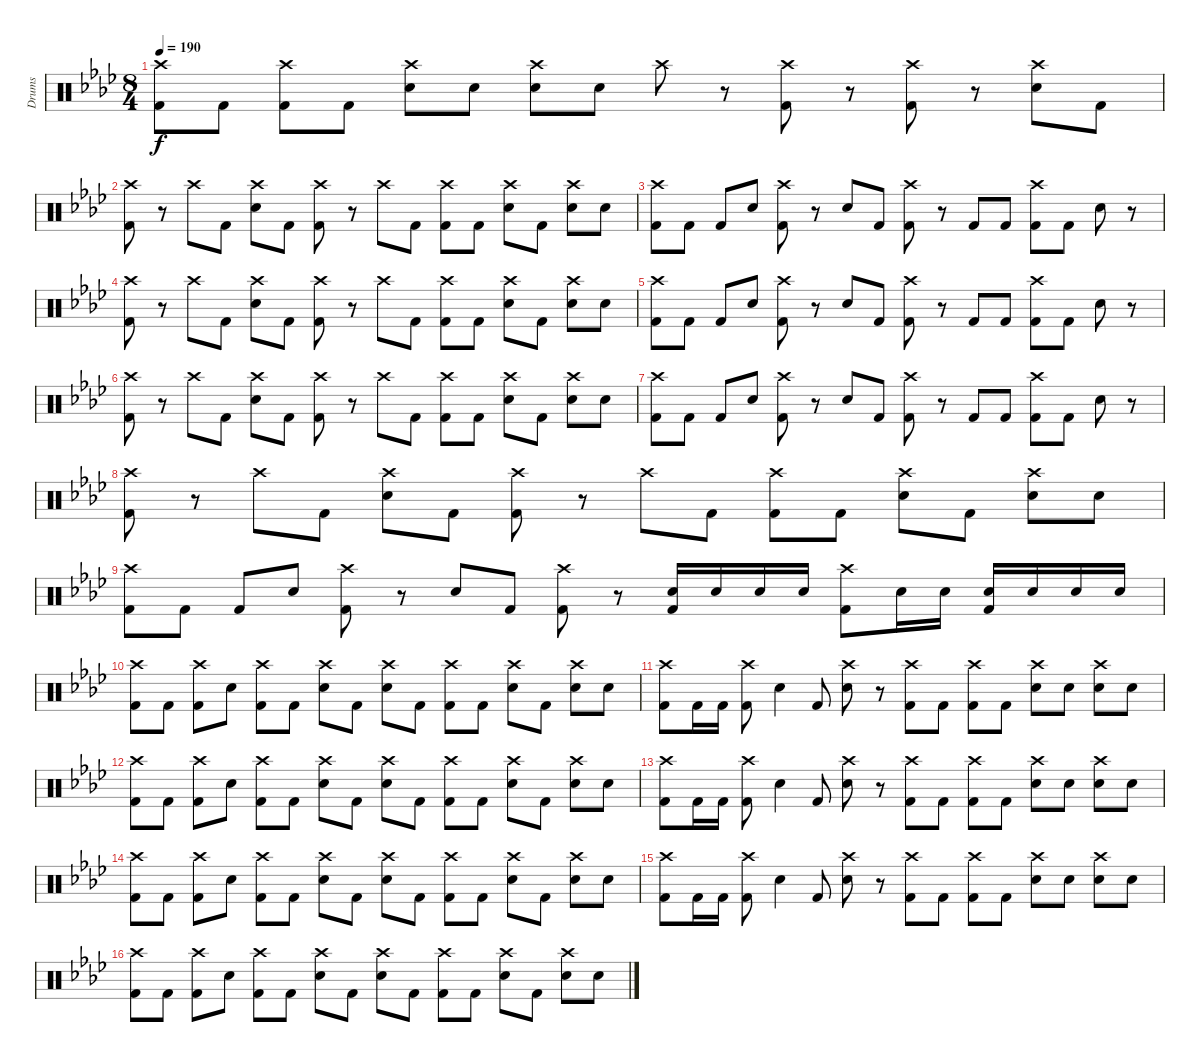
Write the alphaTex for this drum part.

\track ("Drums" "Drums") {instrument percussion}
\staff {score}
\articulation defaults
\ts (8 4)
\tempo 190
\clef neutral
\ks ab
("Crash high (hit)" "Kick (hit) 2").8{dy f} "Kick (hit) 2".8 ("Crash high (hit)" "Kick (hit) 2").8 "Kick (hit) 2".8 ("Crash high (hit)" "Snare (hit) 2").8 "Snare (hit) 2".8 ("Crash high (hit)" "Snare (hit) 2").8 "Snare (hit) 2".8 "Crash high (hit)".8 r.8 ("Crash high (hit)" "Kick (hit) 2").8 r.8 ("Crash high (hit)" "Kick (hit) 2").8 r.8 ("Crash high (hit)" "Snare (hit) 2").8 "Kick (hit) 2".8 |
("Crash high (hit)" "Kick (hit) 2").8 r.8 "Crash high (hit)".8 "Kick (hit) 2".8 ("Crash high (hit)" "Snare (hit) 2").8 "Kick (hit) 2".8 ("Crash high (hit)" "Kick (hit) 2").8 r.8 "Crash high (hit)".8 "Kick (hit) 2".8 ("Crash high (hit)" "Kick (hit) 2").8 "Kick (hit) 2".8 ("Crash high (hit)" "Snare (hit) 2").8 "Kick (hit) 2".8 ("Crash high (hit)" "Snare (hit) 2").8 "Snare (hit) 2".8 |
("Crash high (hit)" "Kick (hit) 2").8 "Kick (hit) 2".8 "Kick (hit) 2".8 "Snare (hit) 2".8 ("Crash high (hit)" "Kick (hit) 2").8 r.8 "Snare (hit) 2".8 "Kick (hit) 2".8 ("Crash high (hit)" "Kick (hit) 2").8 r.8 "Kick (hit) 2".8 "Kick (hit) 2".8 ("Crash high (hit)" "Kick (hit) 2").8 "Kick (hit) 2".8 "Snare (hit) 2".8 r.8 |
("Crash high (hit)" "Kick (hit) 2").8 r.8 "Crash high (hit)".8 "Kick (hit) 2".8 ("Crash high (hit)" "Snare (hit) 2").8 "Kick (hit) 2".8 ("Crash high (hit)" "Kick (hit) 2").8 r.8 "Crash high (hit)".8 "Kick (hit) 2".8 ("Crash high (hit)" "Kick (hit) 2").8 "Kick (hit) 2".8 ("Crash high (hit)" "Snare (hit) 2").8 "Kick (hit) 2".8 ("Crash high (hit)" "Snare (hit) 2").8 "Snare (hit) 2".8 |
("Crash high (hit)" "Kick (hit) 2").8 "Kick (hit) 2".8 "Kick (hit) 2".8 "Snare (hit) 2".8 ("Crash high (hit)" "Kick (hit) 2").8 r.8 "Snare (hit) 2".8 "Kick (hit) 2".8 ("Crash high (hit)" "Kick (hit) 2").8 r.8 "Kick (hit) 2".8 "Kick (hit) 2".8 ("Crash high (hit)" "Kick (hit) 2").8 "Kick (hit) 2".8 "Snare (hit) 2".8 r.8 |
("Crash high (hit)" "Kick (hit) 2").8 r.8 "Crash high (hit)".8 "Kick (hit) 2".8 ("Crash high (hit)" "Snare (hit) 2").8 "Kick (hit) 2".8 ("Crash high (hit)" "Kick (hit) 2").8 r.8 "Crash high (hit)".8 "Kick (hit) 2".8 ("Crash high (hit)" "Kick (hit) 2").8 "Kick (hit) 2".8 ("Crash high (hit)" "Snare (hit) 2").8 "Kick (hit) 2".8 ("Crash high (hit)" "Snare (hit) 2").8 "Snare (hit) 2".8 |
("Crash high (hit)" "Kick (hit) 2").8 "Kick (hit) 2".8 "Kick (hit) 2".8 "Snare (hit) 2".8 ("Crash high (hit)" "Kick (hit) 2").8 r.8 "Snare (hit) 2".8 "Kick (hit) 2".8 ("Crash high (hit)" "Kick (hit) 2").8 r.8 "Kick (hit) 2".8 "Kick (hit) 2".8 ("Crash high (hit)" "Kick (hit) 2").8 "Kick (hit) 2".8 "Snare (hit) 2".8 r.8 |
("Crash high (hit)" "Kick (hit) 2").8 r.8 "Crash high (hit)".8 "Kick (hit) 2".8 ("Crash high (hit)" "Snare (hit) 2").8 "Kick (hit) 2".8 ("Crash high (hit)" "Kick (hit) 2").8 r.8 "Crash high (hit)".8 "Kick (hit) 2".8 ("Crash high (hit)" "Kick (hit) 2").8 "Kick (hit) 2".8 ("Crash high (hit)" "Snare (hit) 2").8 "Kick (hit) 2".8 ("Crash high (hit)" "Snare (hit) 2").8 "Snare (hit) 2".8 |
("Crash high (hit)" "Kick (hit) 2").8 "Kick (hit) 2".8 "Kick (hit) 2".8 "Snare (hit) 2".8 ("Crash high (hit)" "Kick (hit) 2").8 r.8 "Snare (hit) 2".8 "Kick (hit) 2".8 ("Crash high (hit)" "Kick (hit) 2").8 r.8 ("Snare (hit) 2" "Kick (hit) 2").16 "Snare (hit) 2".16 "Snare (hit) 2".16 "Snare (hit) 2".16 ("Crash high (hit)" "Kick (hit) 2").8 "Snare (hit) 2".16 "Snare (hit) 2".16 ("Snare (hit) 2" "Kick (hit) 2").16 "Snare (hit) 2".16 "Snare (hit) 2".16 "Snare (hit) 2".16 |
("Crash high (hit)" "Kick (hit) 2").8 "Kick (hit) 2".8 ("Crash high (hit)" "Kick (hit) 2").8 "Snare (hit) 2".8 ("Crash high (hit)" "Kick (hit) 2").8 "Kick (hit) 2".8 ("Crash high (hit)" "Snare (hit) 2").8 "Kick (hit) 2".8 ("Crash high (hit)" "Snare (hit) 2").8 "Kick (hit) 2".8 ("Crash high (hit)" "Kick (hit) 2").8 "Kick (hit) 2".8 ("Crash high (hit)" "Snare (hit) 2").8 "Kick (hit) 2".8 ("Crash high (hit)" "Snare (hit) 2").8 "Snare (hit) 2".8 |
("Crash high (hit)" "Kick (hit) 2").8 "Kick (hit) 2".16 "Kick (hit) 2".16 ("Crash high (hit)" "Kick (hit) 2").8 "Snare (hit) 2".4 "Kick (hit) 2".8 ("Crash high (hit)" "Snare (hit) 2").8 r.8 ("Crash high (hit)" "Kick (hit) 2").8 "Kick (hit) 2".8 ("Crash high (hit)" "Kick (hit) 2").8 "Kick (hit) 2".8 ("Crash high (hit)" "Snare (hit) 2").8 "Snare (hit) 2".8 ("Crash high (hit)" "Snare (hit) 2").8 "Snare (hit) 2".8 |
("Crash high (hit)" "Kick (hit) 2").8 "Kick (hit) 2".8 ("Crash high (hit)" "Kick (hit) 2").8 "Snare (hit) 2".8 ("Crash high (hit)" "Kick (hit) 2").8 "Kick (hit) 2".8 ("Crash high (hit)" "Snare (hit) 2").8 "Kick (hit) 2".8 ("Crash high (hit)" "Snare (hit) 2").8 "Kick (hit) 2".8 ("Crash high (hit)" "Kick (hit) 2").8 "Kick (hit) 2".8 ("Crash high (hit)" "Snare (hit) 2").8 "Kick (hit) 2".8 ("Crash high (hit)" "Snare (hit) 2").8 "Snare (hit) 2".8 |
("Crash high (hit)" "Kick (hit) 2").8 "Kick (hit) 2".16 "Kick (hit) 2".16 ("Crash high (hit)" "Kick (hit) 2").8 "Snare (hit) 2".4 "Kick (hit) 2".8 ("Crash high (hit)" "Snare (hit) 2").8 r.8 ("Crash high (hit)" "Kick (hit) 2").8 "Kick (hit) 2".8 ("Crash high (hit)" "Kick (hit) 2").8 "Kick (hit) 2".8 ("Crash high (hit)" "Snare (hit) 2").8 "Snare (hit) 2".8 ("Crash high (hit)" "Snare (hit) 2").8 "Snare (hit) 2".8 |
("Crash high (hit)" "Kick (hit) 2").8 "Kick (hit) 2".8 ("Crash high (hit)" "Kick (hit) 2").8 "Snare (hit) 2".8 ("Crash high (hit)" "Kick (hit) 2").8 "Kick (hit) 2".8 ("Crash high (hit)" "Snare (hit) 2").8 "Kick (hit) 2".8 ("Crash high (hit)" "Snare (hit) 2").8 "Kick (hit) 2".8 ("Crash high (hit)" "Kick (hit) 2").8 "Kick (hit) 2".8 ("Crash high (hit)" "Snare (hit) 2").8 "Kick (hit) 2".8 ("Crash high (hit)" "Snare (hit) 2").8 "Snare (hit) 2".8 |
("Crash high (hit)" "Kick (hit) 2").8 "Kick (hit) 2".16 "Kick (hit) 2".16 ("Crash high (hit)" "Kick (hit) 2").8 "Snare (hit) 2".4 "Kick (hit) 2".8 ("Crash high (hit)" "Snare (hit) 2").8 r.8 ("Crash high (hit)" "Kick (hit) 2").8 "Kick (hit) 2".8 ("Crash high (hit)" "Kick (hit) 2").8 "Kick (hit) 2".8 ("Crash high (hit)" "Snare (hit) 2").8 "Snare (hit) 2".8 ("Crash high (hit)" "Snare (hit) 2").8 "Snare (hit) 2".8 |
("Crash high (hit)" "Kick (hit) 2").8 "Kick (hit) 2".8 ("Crash high (hit)" "Kick (hit) 2").8 "Snare (hit) 2".8 ("Crash high (hit)" "Kick (hit) 2").8 "Kick (hit) 2".8 ("Crash high (hit)" "Snare (hit) 2").8 "Kick (hit) 2".8 ("Crash high (hit)" "Snare (hit) 2").8 "Kick (hit) 2".8 ("Crash high (hit)" "Kick (hit) 2").8 "Kick (hit) 2".8 ("Crash high (hit)" "Snare (hit) 2").8 "Kick (hit) 2".8 ("Crash high (hit)" "Snare (hit) 2").8 "Snare (hit) 2".8
